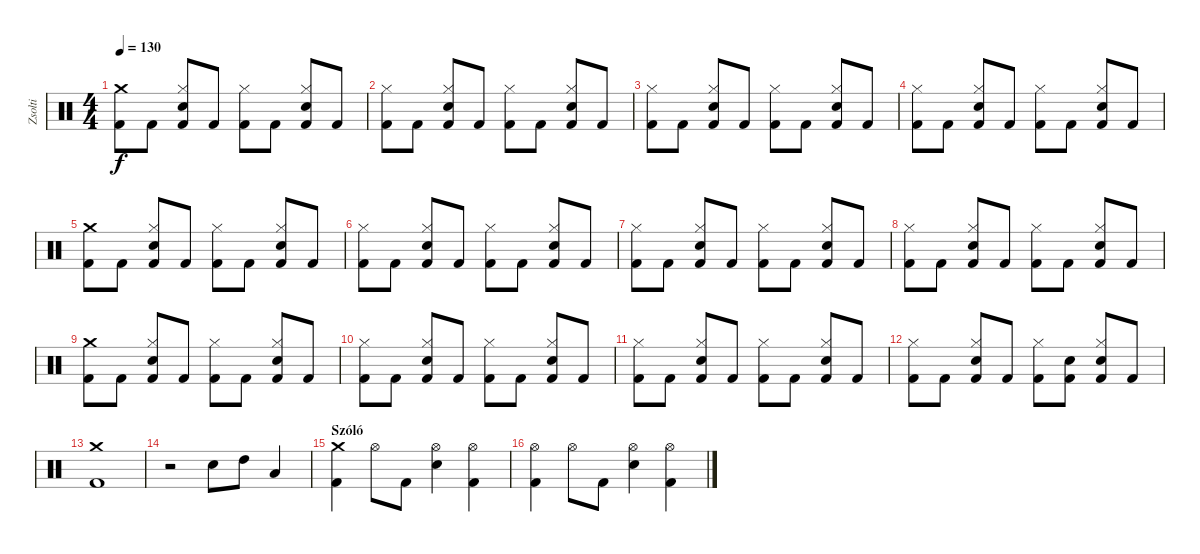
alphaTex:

\track ("Zsolti" "Zsolti") {instrument percussion}
\staff {score}
\articulation defaults
\ts (4 4)
\tempo 130
\clef neutral
\ks c
("Crash medium (hit)" "Kick (hit) 2").8{dy f} "Kick (hit) 2".8 ("Hi-Hat (closed)" "Snare (hit) 2" "Kick (hit) 2").8 "Kick (hit) 2".8 ("Hi-Hat (closed)" "Kick (hit) 2").8 "Kick (hit) 2".8 ("Hi-Hat (closed)" "Snare (hit) 2" "Kick (hit) 2").8 "Kick (hit) 2".8 |
("Hi-Hat (closed)" "Kick (hit) 2").8 "Kick (hit) 2".8 ("Hi-Hat (closed)" "Snare (hit) 2" "Kick (hit) 2").8 "Kick (hit) 2".8 ("Hi-Hat (closed)" "Kick (hit) 2").8 "Kick (hit) 2".8 ("Hi-Hat (closed)" "Snare (hit) 2" "Kick (hit) 2").8 "Kick (hit) 2".8 |
("Hi-Hat (closed)" "Kick (hit) 2").8 "Kick (hit) 2".8 ("Hi-Hat (closed)" "Snare (hit) 2" "Kick (hit) 2").8 "Kick (hit) 2".8 ("Hi-Hat (closed)" "Kick (hit) 2").8 "Kick (hit) 2".8 ("Hi-Hat (closed)" "Snare (hit) 2" "Kick (hit) 2").8 "Kick (hit) 2".8 |
("Hi-Hat (closed)" "Kick (hit) 2").8 "Kick (hit) 2".8 ("Hi-Hat (closed)" "Snare (hit) 2" "Kick (hit) 2").8 "Kick (hit) 2".8 ("Hi-Hat (closed)" "Kick (hit) 2").8 "Kick (hit) 2".8 ("Hi-Hat (closed)" "Snare (hit) 2" "Kick (hit) 2").8 "Kick (hit) 2".8 |
("Crash medium (hit)" "Kick (hit) 2").8 "Kick (hit) 2".8 ("Hi-Hat (closed)" "Snare (hit) 2" "Kick (hit) 2").8 "Kick (hit) 2".8 ("Hi-Hat (closed)" "Kick (hit) 2").8 "Kick (hit) 2".8 ("Hi-Hat (closed)" "Snare (hit) 2" "Kick (hit) 2").8 "Kick (hit) 2".8 |
("Hi-Hat (closed)" "Kick (hit) 2").8 "Kick (hit) 2".8 ("Hi-Hat (closed)" "Snare (hit) 2" "Kick (hit) 2").8 "Kick (hit) 2".8 ("Hi-Hat (closed)" "Kick (hit) 2").8 "Kick (hit) 2".8 ("Hi-Hat (closed)" "Snare (hit) 2" "Kick (hit) 2").8 "Kick (hit) 2".8 |
("Hi-Hat (closed)" "Kick (hit) 2").8 "Kick (hit) 2".8 ("Hi-Hat (closed)" "Snare (hit) 2" "Kick (hit) 2").8 "Kick (hit) 2".8 ("Hi-Hat (closed)" "Kick (hit) 2").8 "Kick (hit) 2".8 ("Hi-Hat (closed)" "Snare (hit) 2" "Kick (hit) 2").8 "Kick (hit) 2".8 |
("Hi-Hat (closed)" "Kick (hit) 2").8 "Kick (hit) 2".8 ("Hi-Hat (closed)" "Snare (hit) 2" "Kick (hit) 2").8 "Kick (hit) 2".8 ("Hi-Hat (closed)" "Kick (hit) 2").8 "Kick (hit) 2".8 ("Hi-Hat (closed)" "Snare (hit) 2" "Kick (hit) 2").8 "Kick (hit) 2".8 |
("Crash medium (hit)" "Kick (hit) 2").8 "Kick (hit) 2".8 ("Hi-Hat (closed)" "Snare (hit) 2" "Kick (hit) 2").8 "Kick (hit) 2".8 ("Hi-Hat (closed)" "Kick (hit) 2").8 "Kick (hit) 2".8 ("Hi-Hat (closed)" "Snare (hit) 2" "Kick (hit) 2").8 "Kick (hit) 2".8 |
("Hi-Hat (closed)" "Kick (hit) 2").8 "Kick (hit) 2".8 ("Hi-Hat (closed)" "Snare (hit) 2" "Kick (hit) 2").8 "Kick (hit) 2".8 ("Hi-Hat (closed)" "Kick (hit) 2").8 "Kick (hit) 2".8 ("Hi-Hat (closed)" "Snare (hit) 2" "Kick (hit) 2").8 "Kick (hit) 2".8 |
("Hi-Hat (closed)" "Kick (hit) 2").8 "Kick (hit) 2".8 ("Hi-Hat (closed)" "Snare (hit) 2" "Kick (hit) 2").8 "Kick (hit) 2".8 ("Hi-Hat (closed)" "Kick (hit) 2").8 "Kick (hit) 2".8 ("Hi-Hat (closed)" "Snare (hit) 2" "Kick (hit) 2").8 "Kick (hit) 2".8 |
("Hi-Hat (closed)" "Kick (hit) 2").8 "Kick (hit) 2".8 ("Hi-Hat (closed)" "Snare (hit) 2" "Kick (hit) 2").8 "Kick (hit) 2".8 ("Hi-Hat (closed)" "Kick (hit) 2").8 ("Snare (hit) 2" "Kick (hit) 2").8 ("Hi-Hat (closed)" "Snare (hit) 2" "Kick (hit) 2").8 "Kick (hit) 2".8 |
("Crash medium (hit)" "Kick (hit) 2").1 |
r.2 "Snare (hit) 2".8 "High Tom (hit)".8 "Low Tom (hit)".4 |
\section ("" "Szóló")
("Crash medium (hit)" "Kick (hit) 2").4 "Hi-Hat (open)".8 "Kick (hit) 2".8 ("Hi-Hat (open)" "Snare (hit) 2").4 ("Hi-Hat (open)" "Kick (hit) 2").4 |
("Hi-Hat (open)" "Kick (hit) 2").4 "Hi-Hat (open)".8 "Kick (hit) 2".8 ("Hi-Hat (open)" "Snare (hit) 2").4 ("Hi-Hat (open)" "Kick (hit) 2").4
